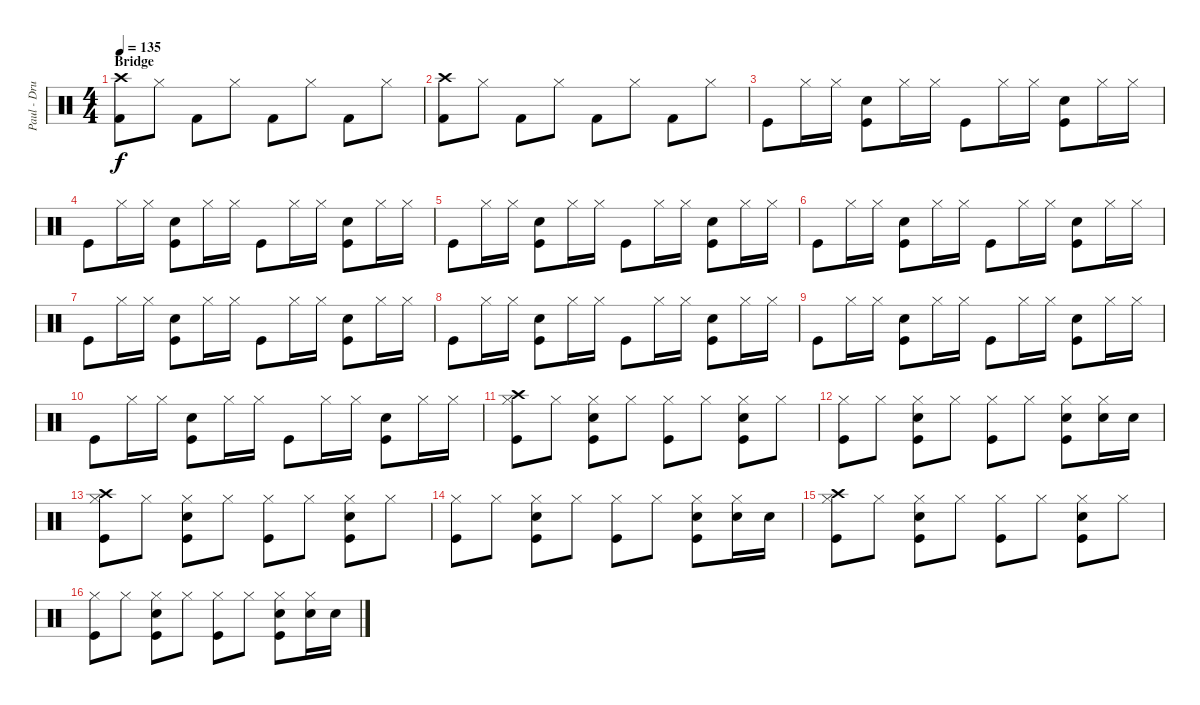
\track ("Paul - Drums" "Paul - Dru") {instrument percussion}
\staff {score}
\articulation defaults
\ts (4 4)
\section ("" "Bridge")
\tempo 135
\clef neutral
\ks c
("Kick (hit) 2" "Crash high (hit)").8{dy f} "Hi-Hat (closed)".8 "Kick (hit) 2".8 "Hi-Hat (closed)".8 "Kick (hit) 2".8 "Hi-Hat (closed)".8 "Kick (hit) 2".8 "Hi-Hat (closed)".8 |
("Kick (hit) 2" "Crash high (hit)").8 "Hi-Hat (closed)".8 "Kick (hit) 2".8 "Hi-Hat (closed)".8 "Kick (hit) 2".8 "Hi-Hat (closed)".8 "Kick (hit) 2".8 "Hi-Hat (closed)".8 |
"Kick (hit)".8 "Hi-Hat (closed)".16 "Hi-Hat (closed)".16 ("Kick (hit)" "Snare (hit) 2").8 "Hi-Hat (closed)".16 "Hi-Hat (closed)".16 "Kick (hit)".8 "Hi-Hat (closed)".16 "Hi-Hat (closed)".16 ("Kick (hit)" "Snare (hit) 2").8 "Hi-Hat (closed)".16 "Hi-Hat (closed)".16 |
"Kick (hit)".8 "Hi-Hat (closed)".16 "Hi-Hat (closed)".16 ("Kick (hit)" "Snare (hit) 2").8 "Hi-Hat (closed)".16 "Hi-Hat (closed)".16 "Kick (hit)".8 "Hi-Hat (closed)".16 "Hi-Hat (closed)".16 ("Kick (hit)" "Snare (hit) 2").8 "Hi-Hat (closed)".16 "Hi-Hat (closed)".16 |
"Kick (hit)".8 "Hi-Hat (closed)".16 "Hi-Hat (closed)".16 ("Kick (hit)" "Snare (hit) 2").8 "Hi-Hat (closed)".16 "Hi-Hat (closed)".16 "Kick (hit)".8 "Hi-Hat (closed)".16 "Hi-Hat (closed)".16 ("Kick (hit)" "Snare (hit) 2").8 "Hi-Hat (closed)".16 "Hi-Hat (closed)".16 |
"Kick (hit)".8 "Hi-Hat (closed)".16 "Hi-Hat (closed)".16 ("Kick (hit)" "Snare (hit) 2").8 "Hi-Hat (closed)".16 "Hi-Hat (closed)".16 "Kick (hit)".8 "Hi-Hat (closed)".16 "Hi-Hat (closed)".16 ("Kick (hit)" "Snare (hit) 2").8 "Hi-Hat (closed)".16 "Hi-Hat (closed)".16 |
"Kick (hit)".8 "Hi-Hat (closed)".16 "Hi-Hat (closed)".16 ("Kick (hit)" "Snare (hit) 2").8 "Hi-Hat (closed)".16 "Hi-Hat (closed)".16 "Kick (hit)".8 "Hi-Hat (closed)".16 "Hi-Hat (closed)".16 ("Kick (hit)" "Snare (hit) 2").8 "Hi-Hat (closed)".16 "Hi-Hat (closed)".16 |
"Kick (hit)".8 "Hi-Hat (closed)".16 "Hi-Hat (closed)".16 ("Kick (hit)" "Snare (hit) 2").8 "Hi-Hat (closed)".16 "Hi-Hat (closed)".16 "Kick (hit)".8 "Hi-Hat (closed)".16 "Hi-Hat (closed)".16 ("Kick (hit)" "Snare (hit) 2").8 "Hi-Hat (closed)".16 "Hi-Hat (closed)".16 |
"Kick (hit)".8 "Hi-Hat (closed)".16 "Hi-Hat (closed)".16 ("Kick (hit)" "Snare (hit) 2").8 "Hi-Hat (closed)".16 "Hi-Hat (closed)".16 "Kick (hit)".8 "Hi-Hat (closed)".16 "Hi-Hat (closed)".16 ("Kick (hit)" "Snare (hit) 2").8 "Hi-Hat (closed)".16 "Hi-Hat (closed)".16 |
"Kick (hit)".8 "Hi-Hat (closed)".16 "Hi-Hat (closed)".16 ("Kick (hit)" "Snare (hit) 2").8 "Hi-Hat (closed)".16 "Hi-Hat (closed)".16 "Kick (hit)".8 "Hi-Hat (closed)".16 "Hi-Hat (closed)".16 ("Kick (hit)" "Snare (hit) 2").8 "Hi-Hat (closed)".16 "Hi-Hat (closed)".16 |
("Kick (hit)" "Hi-Hat (closed)" "Crash high (hit)").8 "Hi-Hat (closed)".8 ("Kick (hit)" "Hi-Hat (closed)" "Snare (hit) 2").8 "Hi-Hat (closed)".8 ("Kick (hit)" "Hi-Hat (closed)").8 "Hi-Hat (closed)".8 ("Kick (hit)" "Hi-Hat (closed)" "Snare (hit) 2").8 "Hi-Hat (closed)".8 |
("Kick (hit)" "Hi-Hat (closed)").8 "Hi-Hat (closed)".8 ("Kick (hit)" "Hi-Hat (closed)" "Snare (hit) 2").8 "Hi-Hat (closed)".8 ("Kick (hit)" "Hi-Hat (closed)").8 "Hi-Hat (closed)".8 ("Kick (hit)" "Hi-Hat (closed)" "Snare (hit) 2").8 ("Hi-Hat (closed)" "Snare (hit) 2").16 "Snare (hit) 2".16 |
("Kick (hit)" "Hi-Hat (closed)" "Crash high (hit)").8 "Hi-Hat (closed)".8 ("Kick (hit)" "Hi-Hat (closed)" "Snare (hit) 2").8 "Hi-Hat (closed)".8 ("Kick (hit)" "Hi-Hat (closed)").8 "Hi-Hat (closed)".8 ("Kick (hit)" "Hi-Hat (closed)" "Snare (hit) 2").8 "Hi-Hat (closed)".8 |
("Kick (hit)" "Hi-Hat (closed)").8 "Hi-Hat (closed)".8 ("Kick (hit)" "Hi-Hat (closed)" "Snare (hit) 2").8 "Hi-Hat (closed)".8 ("Kick (hit)" "Hi-Hat (closed)").8 "Hi-Hat (closed)".8 ("Kick (hit)" "Hi-Hat (closed)" "Snare (hit) 2").8 ("Hi-Hat (closed)" "Snare (hit) 2").16 "Snare (hit) 2".16 |
("Kick (hit)" "Hi-Hat (closed)" "Crash high (hit)").8 "Hi-Hat (closed)".8 ("Kick (hit)" "Hi-Hat (closed)" "Snare (hit) 2").8 "Hi-Hat (closed)".8 ("Kick (hit)" "Hi-Hat (closed)").8 "Hi-Hat (closed)".8 ("Kick (hit)" "Hi-Hat (closed)" "Snare (hit) 2").8 "Hi-Hat (closed)".8 |
("Kick (hit)" "Hi-Hat (closed)").8 "Hi-Hat (closed)".8 ("Kick (hit)" "Hi-Hat (closed)" "Snare (hit) 2").8 "Hi-Hat (closed)".8 ("Kick (hit)" "Hi-Hat (closed)").8 "Hi-Hat (closed)".8 ("Kick (hit)" "Hi-Hat (closed)" "Snare (hit) 2").8 ("Hi-Hat (closed)" "Snare (hit) 2").16 "Snare (hit) 2".16
